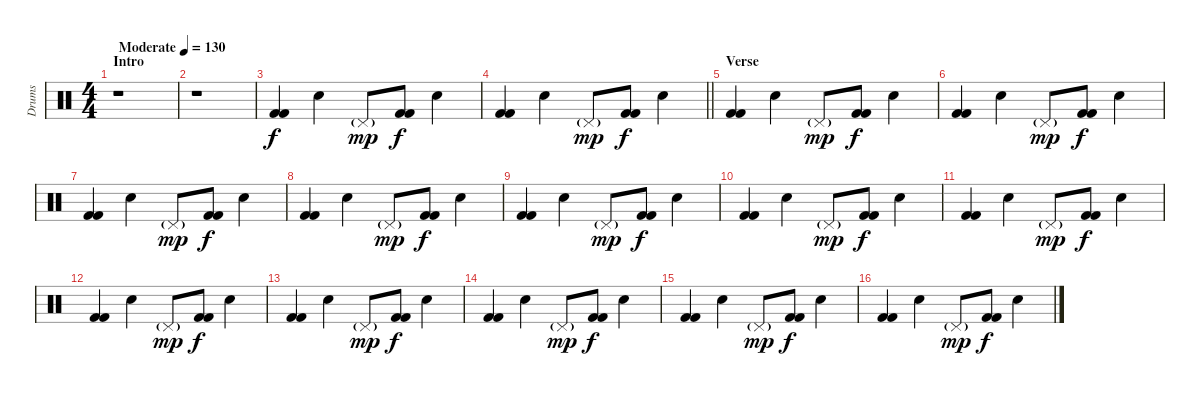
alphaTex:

\track ("Drums" "Drums") {instrument percussion}
\staff {score}
\articulation defaults
\ts (4 4)
\section ("" "Intro")
\tempo (130 "Moderate")
\clef neutral
\ks c
r.1{dy f} |
r.1 |
("Kick (hit) 2" "Kick (hit) 2").4 "Electric Snare (hit)".4 "Pedal Hi-Hat (hit)"{g}.8{dy mp} ("Kick (hit) 2" "Kick (hit) 2").8{dy f} "Electric Snare (hit)".4 |
\barLineRight lightlight
("Kick (hit) 2" "Kick (hit) 2").4 "Electric Snare (hit)".4 "Pedal Hi-Hat (hit)"{g}.8{dy mp} ("Kick (hit) 2" "Kick (hit) 2").8{dy f} "Electric Snare (hit)".4 |
\section ("" "Verse")
("Kick (hit) 2" "Kick (hit) 2").4 "Electric Snare (hit)".4 "Pedal Hi-Hat (hit)"{g}.8{dy mp} ("Kick (hit) 2" "Kick (hit) 2").8{dy f} "Electric Snare (hit)".4 |
("Kick (hit) 2" "Kick (hit) 2").4 "Electric Snare (hit)".4 "Pedal Hi-Hat (hit)"{g}.8{dy mp} ("Kick (hit) 2" "Kick (hit) 2").8{dy f} "Electric Snare (hit)".4 |
("Kick (hit) 2" "Kick (hit) 2").4 "Electric Snare (hit)".4 "Pedal Hi-Hat (hit)"{g}.8{dy mp} ("Kick (hit) 2" "Kick (hit) 2").8{dy f} "Electric Snare (hit)".4 |
("Kick (hit) 2" "Kick (hit) 2").4 "Electric Snare (hit)".4 "Pedal Hi-Hat (hit)"{g}.8{dy mp} ("Kick (hit) 2" "Kick (hit) 2").8{dy f} "Electric Snare (hit)".4 |
("Kick (hit) 2" "Kick (hit) 2").4 "Electric Snare (hit)".4 "Pedal Hi-Hat (hit)"{g}.8{dy mp} ("Kick (hit) 2" "Kick (hit) 2").8{dy f} "Electric Snare (hit)".4 |
("Kick (hit) 2" "Kick (hit) 2").4 "Electric Snare (hit)".4 "Pedal Hi-Hat (hit)"{g}.8{dy mp} ("Kick (hit) 2" "Kick (hit) 2").8{dy f} "Electric Snare (hit)".4 |
("Kick (hit) 2" "Kick (hit) 2").4 "Electric Snare (hit)".4 "Pedal Hi-Hat (hit)"{g}.8{dy mp} ("Kick (hit) 2" "Kick (hit) 2").8{dy f} "Electric Snare (hit)".4 |
("Kick (hit) 2" "Kick (hit) 2").4 "Electric Snare (hit)".4 "Pedal Hi-Hat (hit)"{g}.8{dy mp} ("Kick (hit) 2" "Kick (hit) 2").8{dy f} "Electric Snare (hit)".4 |
("Kick (hit) 2" "Kick (hit) 2").4 "Electric Snare (hit)".4 "Pedal Hi-Hat (hit)"{g}.8{dy mp} ("Kick (hit) 2" "Kick (hit) 2").8{dy f} "Electric Snare (hit)".4 |
("Kick (hit) 2" "Kick (hit) 2").4 "Electric Snare (hit)".4 "Pedal Hi-Hat (hit)"{g}.8{dy mp} ("Kick (hit) 2" "Kick (hit) 2").8{dy f} "Electric Snare (hit)".4 |
("Kick (hit) 2" "Kick (hit) 2").4 "Electric Snare (hit)".4 "Pedal Hi-Hat (hit)"{g}.8{dy mp} ("Kick (hit) 2" "Kick (hit) 2").8{dy f} "Electric Snare (hit)".4 |
("Kick (hit) 2" "Kick (hit) 2").4 "Electric Snare (hit)".4 "Pedal Hi-Hat (hit)"{g}.8{dy mp} ("Kick (hit) 2" "Kick (hit) 2").8{dy f} "Electric Snare (hit)".4
